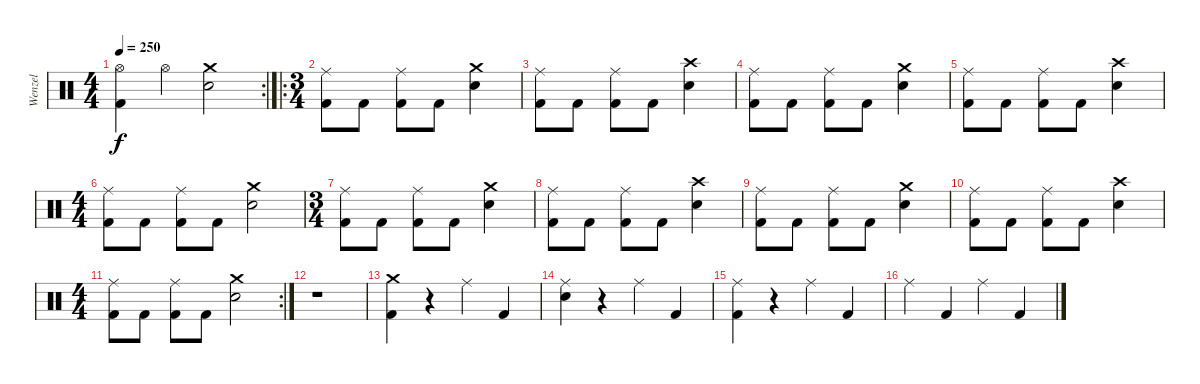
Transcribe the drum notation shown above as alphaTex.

\track ("Wenzel" "Wenzel") {instrument percussion}
\staff {score}
\articulation defaults
\rc 2
\ts (4 4)
\tempo 250
\clef neutral
\ks c
("Hi-Hat (open)" "Kick (hit) 2").4{dy f} "Hi-Hat (open)".4 ("Crash medium (hit)" "Snare (hit) 2").2 |
\ro
\ts (3 4)
("Ride (middle)" "Kick (hit) 2").8 "Kick (hit) 2".8 ("Ride (middle)" "Kick (hit) 2").8 "Kick (hit) 2".8 ("Crash medium (hit)" "Snare (hit) 2").4 |
("Ride (middle)" "Kick (hit) 2").8 "Kick (hit) 2".8 ("Ride (middle)" "Kick (hit) 2").8 "Kick (hit) 2".8 ("Crash high (hit)" "Snare (hit) 2").4 |
("Ride (middle)" "Kick (hit) 2").8 "Kick (hit) 2".8 ("Ride (middle)" "Kick (hit) 2").8 "Kick (hit) 2".8 ("Crash medium (hit)" "Snare (hit) 2").4 |
("Ride (middle)" "Kick (hit) 2").8 "Kick (hit) 2".8 ("Ride (middle)" "Kick (hit) 2").8 "Kick (hit) 2".8 ("Crash high (hit)" "Snare (hit) 2").4 |
\ts (4 4)
("Ride (middle)" "Kick (hit) 2").8 "Kick (hit) 2".8 ("Ride (middle)" "Kick (hit) 2").8 "Kick (hit) 2".8 ("Crash medium (hit)" "Snare (hit) 2").2 |
\ts (3 4)
("Ride (middle)" "Kick (hit) 2").8 "Kick (hit) 2".8 ("Ride (middle)" "Kick (hit) 2").8 "Kick (hit) 2".8 ("Crash medium (hit)" "Snare (hit) 2").4 |
("Ride (middle)" "Kick (hit) 2").8 "Kick (hit) 2".8 ("Ride (middle)" "Kick (hit) 2").8 "Kick (hit) 2".8 ("Crash high (hit)" "Snare (hit) 2").4 |
("Ride (middle)" "Kick (hit) 2").8 "Kick (hit) 2".8 ("Ride (middle)" "Kick (hit) 2").8 "Kick (hit) 2".8 ("Crash medium (hit)" "Snare (hit) 2").4 |
("Ride (middle)" "Kick (hit) 2").8 "Kick (hit) 2".8 ("Ride (middle)" "Kick (hit) 2").8 "Kick (hit) 2".8 ("Crash high (hit)" "Snare (hit) 2").4 |
\rc 2
\ts (4 4)
("Ride (middle)" "Kick (hit) 2").8 "Kick (hit) 2".8 ("Ride (middle)" "Kick (hit) 2").8 "Kick (hit) 2".8 ("Crash medium (hit)" "Snare (hit) 2").2 |
r.1 |
("Crash medium (hit)" "Kick (hit) 2").4 r.4 "Ride (middle)".4 "Kick (hit) 2".4 |
("Ride (middle)" "Snare (hit) 2").4 r.4 "Ride (middle)".4 "Kick (hit) 2".4 |
("Ride (middle)" "Kick (hit) 2").4 r.4 "Ride (middle)".4 "Kick (hit) 2".4 |
"Ride (middle)".4 "Kick (hit) 2".4 "Ride (middle)".4 "Kick (hit) 2".4
